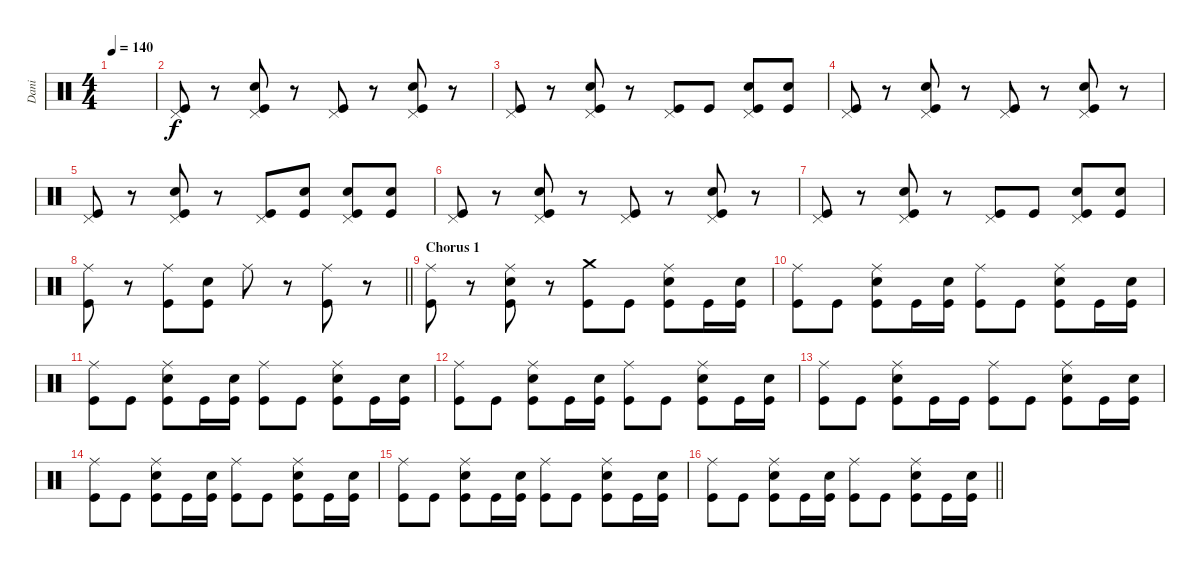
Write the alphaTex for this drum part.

\track ("Dani" "Dani") {instrument percussion}
\staff {score}
\articulation defaults
\ts (4 4)
\tempo 140
\clef neutral
\ks c
|
("Pedal Hi-Hat (hit)" "Kick (hit)").8 r.8 ("Pedal Hi-Hat (hit)" "Snare (hit) 2" "Kick (hit)").8 r.8 ("Pedal Hi-Hat (hit)" "Kick (hit)").8 r.8 ("Pedal Hi-Hat (hit)" "Snare (hit) 2" "Kick (hit)").8 r.8 |
("Pedal Hi-Hat (hit)" "Kick (hit)").8 r.8 ("Pedal Hi-Hat (hit)" "Snare (hit) 2" "Kick (hit)").8 r.8 ("Pedal Hi-Hat (hit)" "Kick (hit)").8 "Kick (hit)".8 ("Pedal Hi-Hat (hit)" "Snare (hit) 2" "Kick (hit)").8 ("Snare (hit) 2" "Kick (hit)").8 |
("Pedal Hi-Hat (hit)" "Kick (hit)").8 r.8 ("Pedal Hi-Hat (hit)" "Snare (hit) 2" "Kick (hit)").8 r.8 ("Pedal Hi-Hat (hit)" "Kick (hit)").8 r.8 ("Pedal Hi-Hat (hit)" "Snare (hit) 2" "Kick (hit)").8 r.8 |
("Pedal Hi-Hat (hit)" "Kick (hit)").8 r.8 ("Pedal Hi-Hat (hit)" "Snare (hit) 2" "Kick (hit)").8 r.8 ("Pedal Hi-Hat (hit)" "Kick (hit)").8 ("Snare (hit) 2" "Kick (hit)").8 ("Pedal Hi-Hat (hit)" "Snare (hit) 2" "Kick (hit)").8 ("Snare (hit) 2" "Kick (hit)").8 |
("Pedal Hi-Hat (hit)" "Kick (hit)").8 r.8 ("Pedal Hi-Hat (hit)" "Snare (hit) 2" "Kick (hit)").8 r.8 ("Pedal Hi-Hat (hit)" "Kick (hit)").8 r.8 ("Pedal Hi-Hat (hit)" "Snare (hit) 2" "Kick (hit)").8 r.8 |
("Pedal Hi-Hat (hit)" "Kick (hit)").8 r.8 ("Pedal Hi-Hat (hit)" "Snare (hit) 2" "Kick (hit)").8 r.8 ("Pedal Hi-Hat (hit)" "Kick (hit)").8 "Kick (hit)".8 ("Pedal Hi-Hat (hit)" "Snare (hit) 2" "Kick (hit)").8 ("Snare (hit) 2" "Kick (hit)").8 |
\barLineRight lightlight
("Ride (middle)" "Kick (hit)").8 r.8 ("Ride (middle)" "Kick (hit)").8 ("Snare (hit) 2" "Kick (hit)").8 "Ride (middle)".8 r.8 ("Ride (middle)" "Kick (hit)").8 r.8 |
\section ("" "Chorus 1")
("Ride (middle)" "Kick (hit)").8 r.8 ("Ride (middle)" "Snare (hit) 2" "Kick (hit)").8 r.8 ("Crash medium (hit)" "Kick (hit)").8 "Kick (hit)".8 ("Ride (middle)" "Snare (hit) 2" "Kick (hit)").8 "Kick (hit)".16 ("Snare (hit) 2" "Kick (hit)").16 |
("Ride (middle)" "Kick (hit)").8 "Kick (hit)".8 ("Ride (middle)" "Snare (hit) 2" "Kick (hit)").8 "Kick (hit)".16 ("Snare (hit) 2" "Kick (hit)").16 ("Ride (middle)" "Kick (hit)").8 "Kick (hit)".8 ("Ride (middle)" "Snare (hit) 2" "Kick (hit)").8 "Kick (hit)".16 ("Snare (hit) 2" "Kick (hit)").16 |
("Ride (middle)" "Kick (hit)").8 "Kick (hit)".8 ("Ride (middle)" "Snare (hit) 2" "Kick (hit)").8 "Kick (hit)".16 ("Snare (hit) 2" "Kick (hit)").16 ("Ride (middle)" "Kick (hit)").8 "Kick (hit)".8 ("Ride (middle)" "Snare (hit) 2" "Kick (hit)").8 "Kick (hit)".16 ("Snare (hit) 2" "Kick (hit)").16 |
("Ride (middle)" "Kick (hit)").8 "Kick (hit)".8 ("Ride (middle)" "Snare (hit) 2" "Kick (hit)").8 "Kick (hit)".16 ("Snare (hit) 2" "Kick (hit)").16 ("Ride (middle)" "Kick (hit)").8 "Kick (hit)".8 ("Ride (middle)" "Snare (hit) 2" "Kick (hit)").8 "Kick (hit)".16 ("Snare (hit) 2" "Kick (hit)").16 |
("Ride (middle)" "Kick (hit)").8 "Kick (hit)".8 ("Ride (middle)" "Snare (hit) 2" "Kick (hit)").8 "Kick (hit)".16 "Kick (hit)".16 ("Ride (middle)" "Kick (hit)").8 "Kick (hit)".8 ("Ride (middle)" "Snare (hit) 2" "Kick (hit)").8 "Kick (hit)".16 ("Snare (hit) 2" "Kick (hit)").16 |
("Ride (middle)" "Kick (hit)").8 "Kick (hit)".8 ("Ride (middle)" "Snare (hit) 2" "Kick (hit)").8 "Kick (hit)".16 ("Snare (hit) 2" "Kick (hit)").16 ("Ride (middle)" "Kick (hit)").8 "Kick (hit)".8 ("Ride (middle)" "Snare (hit) 2" "Kick (hit)").8 "Kick (hit)".16 ("Snare (hit) 2" "Kick (hit)").16 |
("Ride (middle)" "Kick (hit)").8 "Kick (hit)".8 ("Ride (middle)" "Snare (hit) 2" "Kick (hit)").8 "Kick (hit)".16 ("Snare (hit) 2" "Kick (hit)").16 ("Ride (middle)" "Kick (hit)").8 "Kick (hit)".8 ("Ride (middle)" "Snare (hit) 2" "Kick (hit)").8 "Kick (hit)".16 ("Snare (hit) 2" "Kick (hit)").16 |
\barLineRight lightlight
("Ride (middle)" "Kick (hit)").8 "Kick (hit)".8 ("Ride (middle)" "Snare (hit) 2" "Kick (hit)").8 "Kick (hit)".16 ("Snare (hit) 2" "Kick (hit)").16 ("Ride (middle)" "Kick (hit)").8 "Kick (hit)".8 ("Ride (middle)" "Snare (hit) 2" "Kick (hit)").8 "Kick (hit)".16 ("Snare (hit) 2" "Kick (hit)").16
